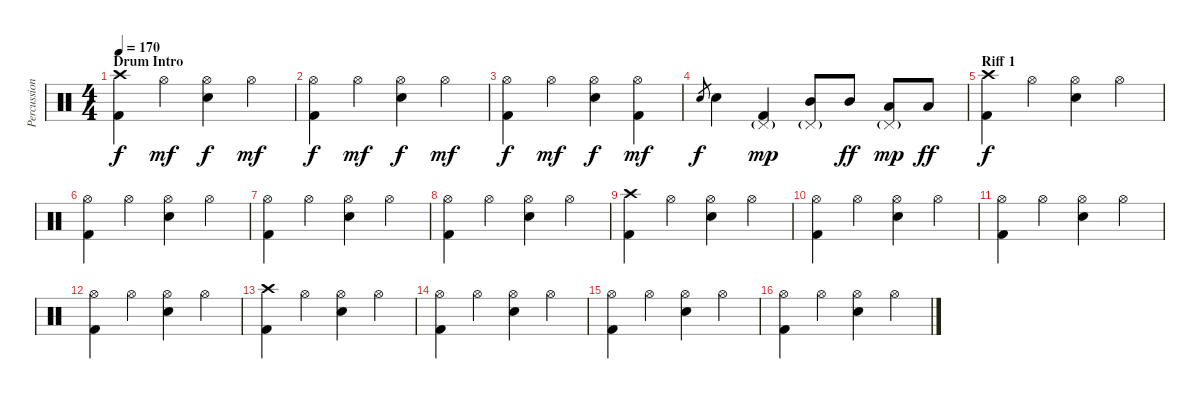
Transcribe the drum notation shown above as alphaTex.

\track ("Percussion" "Percussion") {instrument percussion}
\staff {score}
\articulation defaults
\ts (4 4)
\section ("" "Drum Intro")
\tempo 170
\clef neutral
\ks c
("Crash high (hit)" "Kick (hit) 2").4{dy f} "Hi-Hat (open)".4{dy mf} ("Hi-Hat (open)" "Electric Snare (hit)").4{dy f} "Hi-Hat (open)".4{dy mf} |
("Hi-Hat (open)" "Kick (hit) 2").4{dy f} "Hi-Hat (open)".4{dy mf} ("Hi-Hat (open)" "Electric Snare (hit)").4{dy f} "Hi-Hat (open)".4{dy mf} |
("Hi-Hat (open)" "Kick (hit) 2").4{dy f} "Hi-Hat (open)".4{dy mf} ("Hi-Hat (open)" "Electric Snare (hit)").4{dy f} ("Hi-Hat (open)" "Kick (hit) 2").4{dy mf} |
"Electric Snare (hit)".8{gr dy f} "Electric Snare (hit)".4 ("Pedal Hi-Hat (hit)"{g} "Kick (hit) 2").4{dy mp} ("Mid Tom (hit)" "Pedal Hi-Hat (hit)"{g}).8 "Mid Tom (hit)".8{dy ff} ("Low Tom (hit)" "Pedal Hi-Hat (hit)"{g}).8{dy mp} "Low Tom (hit)".8{dy ff} |
\section ("" "Riff 1")
("Crash high (hit)" "Kick (hit) 2").4{dy f} "Hi-Hat (open)".4 ("Hi-Hat (open)" "Electric Snare (hit)").4 "Hi-Hat (open)".4 |
("Hi-Hat (open)" "Kick (hit) 2").4 "Hi-Hat (open)".4 ("Hi-Hat (open)" "Electric Snare (hit)").4 "Hi-Hat (open)".4 |
("Hi-Hat (open)" "Kick (hit) 2").4 "Hi-Hat (open)".4 ("Hi-Hat (open)" "Electric Snare (hit)").4 "Hi-Hat (open)".4 |
("Hi-Hat (open)" "Kick (hit) 2").4 "Hi-Hat (open)".4 ("Hi-Hat (open)" "Electric Snare (hit)").4 "Hi-Hat (open)".4 |
("Crash high (hit)" "Kick (hit) 2").4 "Hi-Hat (open)".4 ("Hi-Hat (open)" "Electric Snare (hit)").4 "Hi-Hat (open)".4 |
("Hi-Hat (open)" "Kick (hit) 2").4 "Hi-Hat (open)".4 ("Hi-Hat (open)" "Electric Snare (hit)").4 "Hi-Hat (open)".4 |
("Hi-Hat (open)" "Kick (hit) 2").4 "Hi-Hat (open)".4 ("Hi-Hat (open)" "Electric Snare (hit)").4 "Hi-Hat (open)".4 |
("Hi-Hat (open)" "Kick (hit) 2").4 "Hi-Hat (open)".4 ("Hi-Hat (open)" "Electric Snare (hit)").4 "Hi-Hat (open)".4 |
("Crash high (hit)" "Kick (hit) 2").4 "Hi-Hat (open)".4 ("Hi-Hat (open)" "Electric Snare (hit)").4 "Hi-Hat (open)".4 |
("Hi-Hat (open)" "Kick (hit) 2").4 "Hi-Hat (open)".4 ("Hi-Hat (open)" "Electric Snare (hit)").4 "Hi-Hat (open)".4 |
("Hi-Hat (open)" "Kick (hit) 2").4 "Hi-Hat (open)".4 ("Hi-Hat (open)" "Electric Snare (hit)").4 "Hi-Hat (open)".4 |
("Hi-Hat (open)" "Kick (hit) 2").4 "Hi-Hat (open)".4 ("Hi-Hat (open)" "Electric Snare (hit)").4 "Hi-Hat (open)".4
